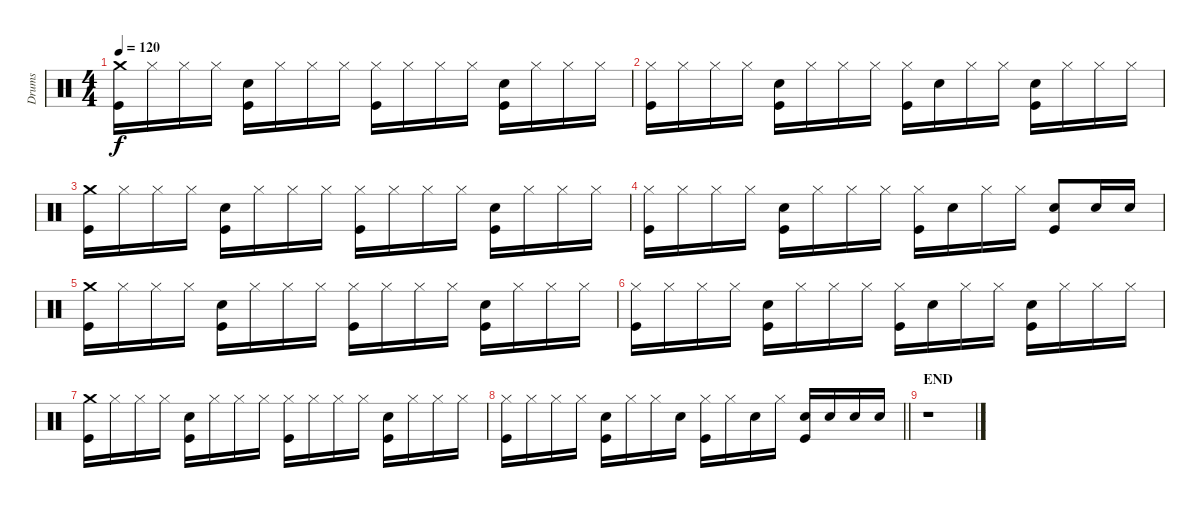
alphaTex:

\track ("Drums" "Drums") {instrument percussion}
\staff {score}
\articulation defaults
\ts (4 4)
\tempo 120
\clef neutral
\ks c
("Crash medium (hit)" "Kick (hit)").16{dy f} "Hi-Hat (closed)".16 "Hi-Hat (closed)".16 "Hi-Hat (closed)".16 ("Kick (hit)" "Snare (hit) 2").16 "Hi-Hat (closed)".16 "Hi-Hat (closed)".16 "Hi-Hat (closed)".16 ("Hi-Hat (closed)" "Kick (hit)").16 "Hi-Hat (closed)".16 "Hi-Hat (closed)".16 "Hi-Hat (closed)".16 ("Kick (hit)" "Snare (hit) 2").16 "Hi-Hat (closed)".16 "Hi-Hat (closed)".16 "Hi-Hat (closed)".16 |
("Hi-Hat (closed)" "Kick (hit)").16 "Hi-Hat (closed)".16 "Hi-Hat (closed)".16 "Hi-Hat (closed)".16 ("Kick (hit)" "Snare (hit) 2").16 "Hi-Hat (closed)".16 "Hi-Hat (closed)".16 "Hi-Hat (closed)".16 ("Hi-Hat (closed)" "Kick (hit)").16 "Snare (hit) 2".16 "Hi-Hat (closed)".16 "Hi-Hat (closed)".16 ("Kick (hit)" "Snare (hit) 2").16 "Hi-Hat (closed)".16 "Hi-Hat (closed)".16 "Hi-Hat (closed)".16 |
("Crash medium (hit)" "Kick (hit)").16 "Hi-Hat (closed)".16 "Hi-Hat (closed)".16 "Hi-Hat (closed)".16 ("Kick (hit)" "Snare (hit) 2").16 "Hi-Hat (closed)".16 "Hi-Hat (closed)".16 "Hi-Hat (closed)".16 ("Hi-Hat (closed)" "Kick (hit)").16 "Hi-Hat (closed)".16 "Hi-Hat (closed)".16 "Hi-Hat (closed)".16 ("Kick (hit)" "Snare (hit) 2").16 "Hi-Hat (closed)".16 "Hi-Hat (closed)".16 "Hi-Hat (closed)".16 |
("Hi-Hat (closed)" "Kick (hit)").16 "Hi-Hat (closed)".16 "Hi-Hat (closed)".16 "Hi-Hat (closed)".16 ("Kick (hit)" "Snare (hit) 2").16 "Hi-Hat (closed)".16 "Hi-Hat (closed)".16 "Hi-Hat (closed)".16 ("Hi-Hat (closed)" "Kick (hit)").16 "Snare (hit) 2".16 "Hi-Hat (closed)".16 "Hi-Hat (closed)".16 ("Kick (hit)" "Snare (hit) 2").8 "Snare (hit) 2".16 "Snare (hit) 2".16 |
("Crash medium (hit)" "Kick (hit)").16 "Hi-Hat (closed)".16 "Hi-Hat (closed)".16 "Hi-Hat (closed)".16 ("Kick (hit)" "Snare (hit) 2").16 "Hi-Hat (closed)".16 "Hi-Hat (closed)".16 "Hi-Hat (closed)".16 ("Hi-Hat (closed)" "Kick (hit)").16 "Hi-Hat (closed)".16 "Hi-Hat (closed)".16 "Hi-Hat (closed)".16 ("Kick (hit)" "Snare (hit) 2").16 "Hi-Hat (closed)".16 "Hi-Hat (closed)".16 "Hi-Hat (closed)".16 |
("Hi-Hat (closed)" "Kick (hit)").16 "Hi-Hat (closed)".16 "Hi-Hat (closed)".16 "Hi-Hat (closed)".16 ("Kick (hit)" "Snare (hit) 2").16 "Hi-Hat (closed)".16 "Hi-Hat (closed)".16 "Hi-Hat (closed)".16 ("Hi-Hat (closed)" "Kick (hit)").16 "Snare (hit) 2".16 "Hi-Hat (closed)".16 "Hi-Hat (closed)".16 ("Kick (hit)" "Snare (hit) 2").16 "Hi-Hat (closed)".16 "Hi-Hat (closed)".16 "Hi-Hat (closed)".16 |
("Crash medium (hit)" "Kick (hit)").16 "Hi-Hat (closed)".16 "Hi-Hat (closed)".16 "Hi-Hat (closed)".16 ("Kick (hit)" "Snare (hit) 2").16 "Hi-Hat (closed)".16 "Hi-Hat (closed)".16 "Hi-Hat (closed)".16 ("Hi-Hat (closed)" "Kick (hit)").16 "Hi-Hat (closed)".16 "Hi-Hat (closed)".16 "Hi-Hat (closed)".16 ("Kick (hit)" "Snare (hit) 2").16 "Hi-Hat (closed)".16 "Hi-Hat (closed)".16 "Hi-Hat (closed)".16 |
\barLineRight lightlight
("Hi-Hat (closed)" "Kick (hit)").16 "Hi-Hat (closed)".16 "Hi-Hat (closed)".16 "Hi-Hat (closed)".16 ("Kick (hit)" "Snare (hit) 2").16 "Hi-Hat (closed)".16 "Hi-Hat (closed)".16 "Snare (hit) 2".16 ("Hi-Hat (closed)" "Kick (hit)").16 "Hi-Hat (closed)".16 "Snare (hit) 2".16 "Hi-Hat (closed)".16 ("Kick (hit)" "Snare (hit) 2").16 "Snare (hit) 2".16 "Snare (hit) 2".16 "Snare (hit) 2".16 |
\section ("" "END")
r.1
